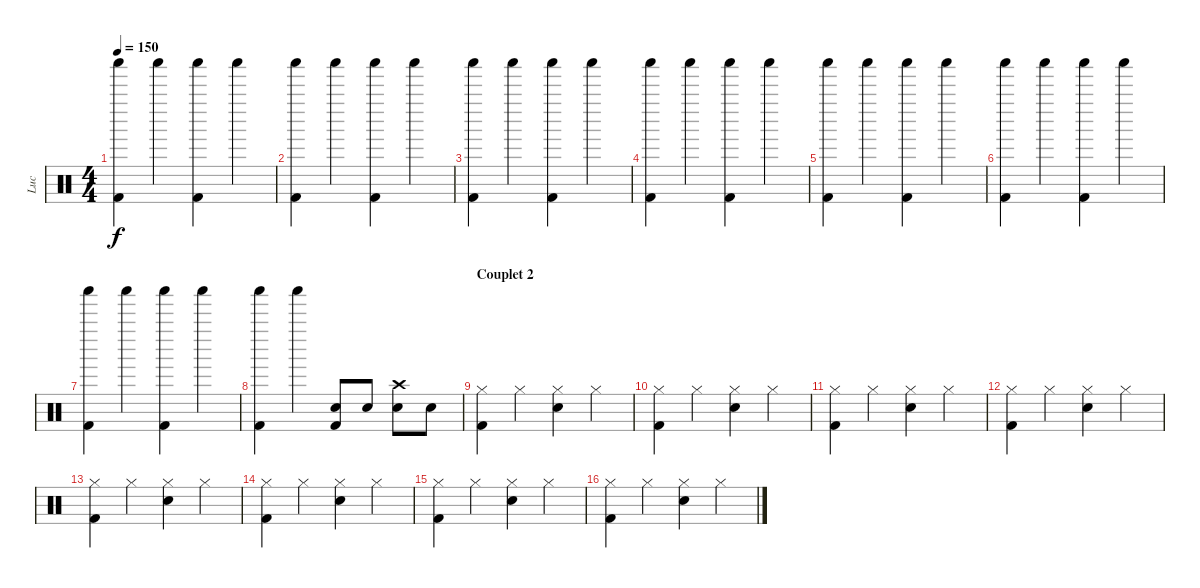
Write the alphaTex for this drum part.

\track ("Luc" "Luc") {instrument percussion}
\staff {score}
\articulation defaults
\ts (4 4)
\tempo 150
\clef neutral
\ks c
("Shaker (hit)" "Kick (hit) 2").4{dy f} "Shaker (hit)".4 ("Shaker (hit)" "Kick (hit) 2").4 "Shaker (hit)".4 |
("Shaker (hit)" "Kick (hit) 2").4 "Shaker (hit)".4 ("Shaker (hit)" "Kick (hit) 2").4 "Shaker (hit)".4 |
("Shaker (hit)" "Kick (hit) 2").4 "Shaker (hit)".4 ("Shaker (hit)" "Kick (hit) 2").4 "Shaker (hit)".4 |
("Shaker (hit)" "Kick (hit) 2").4 "Shaker (hit)".4 ("Shaker (hit)" "Kick (hit) 2").4 "Shaker (hit)".4 |
("Shaker (hit)" "Kick (hit) 2").4 "Shaker (hit)".4 ("Shaker (hit)" "Kick (hit) 2").4 "Shaker (hit)".4 |
("Shaker (hit)" "Kick (hit) 2").4 "Shaker (hit)".4 ("Shaker (hit)" "Kick (hit) 2").4 "Shaker (hit)".4 |
("Shaker (hit)" "Kick (hit) 2").4 "Shaker (hit)".4 ("Shaker (hit)" "Kick (hit) 2").4 "Shaker (hit)".4 |
("Shaker (hit)" "Kick (hit) 2").4 "Shaker (hit)".4 ("Snare (hit) 2" "Kick (hit) 2").8 "Snare (hit) 2".8 ("Crash high (hit)" "Snare (hit) 2").8 "Snare (hit) 2".8 |
\section ("" "Couplet 2")
("Hi-Hat (closed)" "Kick (hit) 2").4 "Hi-Hat (closed)".4 ("Hi-Hat (closed)" "Snare (hit) 2").4 "Hi-Hat (closed)".4 |
("Hi-Hat (closed)" "Kick (hit) 2").4 "Hi-Hat (closed)".4 ("Hi-Hat (closed)" "Snare (hit) 2").4 "Hi-Hat (closed)".4 |
("Hi-Hat (closed)" "Kick (hit) 2").4 "Hi-Hat (closed)".4 ("Hi-Hat (closed)" "Snare (hit) 2").4 "Hi-Hat (closed)".4 |
("Hi-Hat (closed)" "Kick (hit) 2").4 "Hi-Hat (closed)".4 ("Hi-Hat (closed)" "Snare (hit) 2").4 "Hi-Hat (closed)".4 |
("Hi-Hat (closed)" "Kick (hit) 2").4 "Hi-Hat (closed)".4 ("Hi-Hat (closed)" "Snare (hit) 2").4 "Hi-Hat (closed)".4 |
("Hi-Hat (closed)" "Kick (hit) 2").4 "Hi-Hat (closed)".4 ("Hi-Hat (closed)" "Snare (hit) 2").4 "Hi-Hat (closed)".4 |
("Hi-Hat (closed)" "Kick (hit) 2").4 "Hi-Hat (closed)".4 ("Hi-Hat (closed)" "Snare (hit) 2").4 "Hi-Hat (closed)".4 |
("Hi-Hat (closed)" "Kick (hit) 2").4 "Hi-Hat (closed)".4 ("Hi-Hat (closed)" "Snare (hit) 2").4 "Hi-Hat (closed)".4
